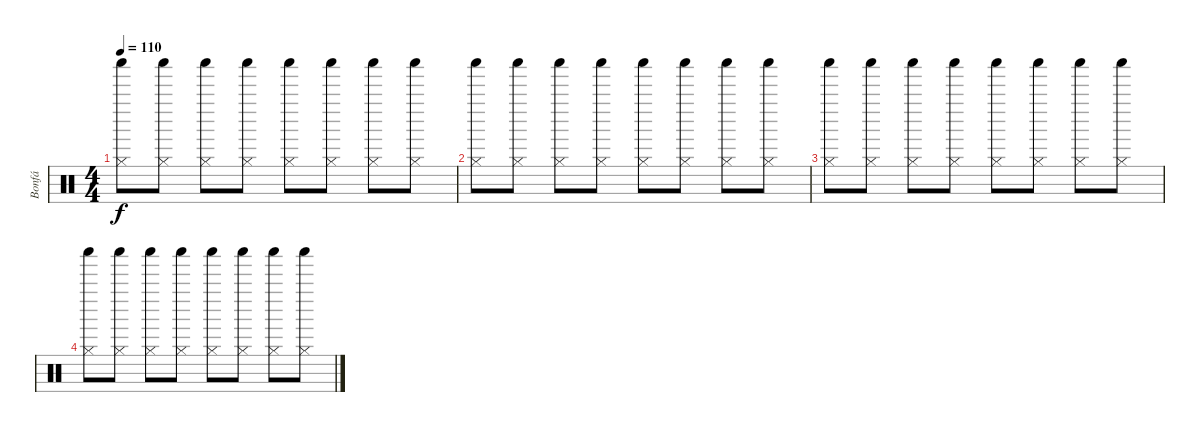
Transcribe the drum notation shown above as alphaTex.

\track ("Bonfá" "Bonfá") {instrument percussion}
\staff {score}
\articulation defaults
\ts (4 4)
\tempo 110
\clef neutral
\ks c
("Shaker (hit)" "Hi-Hat (closed)").8{dy f} ("Shaker (hit)" "Hi-Hat (closed)").8 ("Shaker (hit)" "Hi-Hat (closed)").8 ("Shaker (hit)" "Hi-Hat (closed)").8 ("Shaker (hit)" "Hi-Hat (closed)").8 ("Shaker (hit)" "Hi-Hat (closed)").8 ("Shaker (hit)" "Hi-Hat (closed)").8 ("Shaker (hit)" "Hi-Hat (closed)").8 |
("Shaker (hit)" "Hi-Hat (closed)").8 ("Shaker (hit)" "Hi-Hat (closed)").8 ("Shaker (hit)" "Hi-Hat (closed)").8 ("Shaker (hit)" "Hi-Hat (closed)").8 ("Shaker (hit)" "Hi-Hat (closed)").8 ("Shaker (hit)" "Hi-Hat (closed)").8 ("Shaker (hit)" "Hi-Hat (closed)").8 ("Shaker (hit)" "Hi-Hat (closed)").8 |
("Shaker (hit)" "Hi-Hat (closed)").8 ("Shaker (hit)" "Hi-Hat (closed)").8 ("Shaker (hit)" "Hi-Hat (closed)").8 ("Shaker (hit)" "Hi-Hat (closed)").8 ("Shaker (hit)" "Hi-Hat (closed)").8 ("Shaker (hit)" "Hi-Hat (closed)").8 ("Shaker (hit)" "Hi-Hat (closed)").8 ("Shaker (hit)" "Hi-Hat (closed)").8 |
("Shaker (hit)" "Hi-Hat (closed)").8 ("Shaker (hit)" "Hi-Hat (closed)").8 ("Shaker (hit)" "Hi-Hat (closed)").8 ("Shaker (hit)" "Hi-Hat (closed)").8 ("Shaker (hit)" "Hi-Hat (closed)").8 ("Shaker (hit)" "Hi-Hat (closed)").8 ("Shaker (hit)" "Hi-Hat (closed)").8 ("Shaker (hit)" "Hi-Hat (closed)").8
